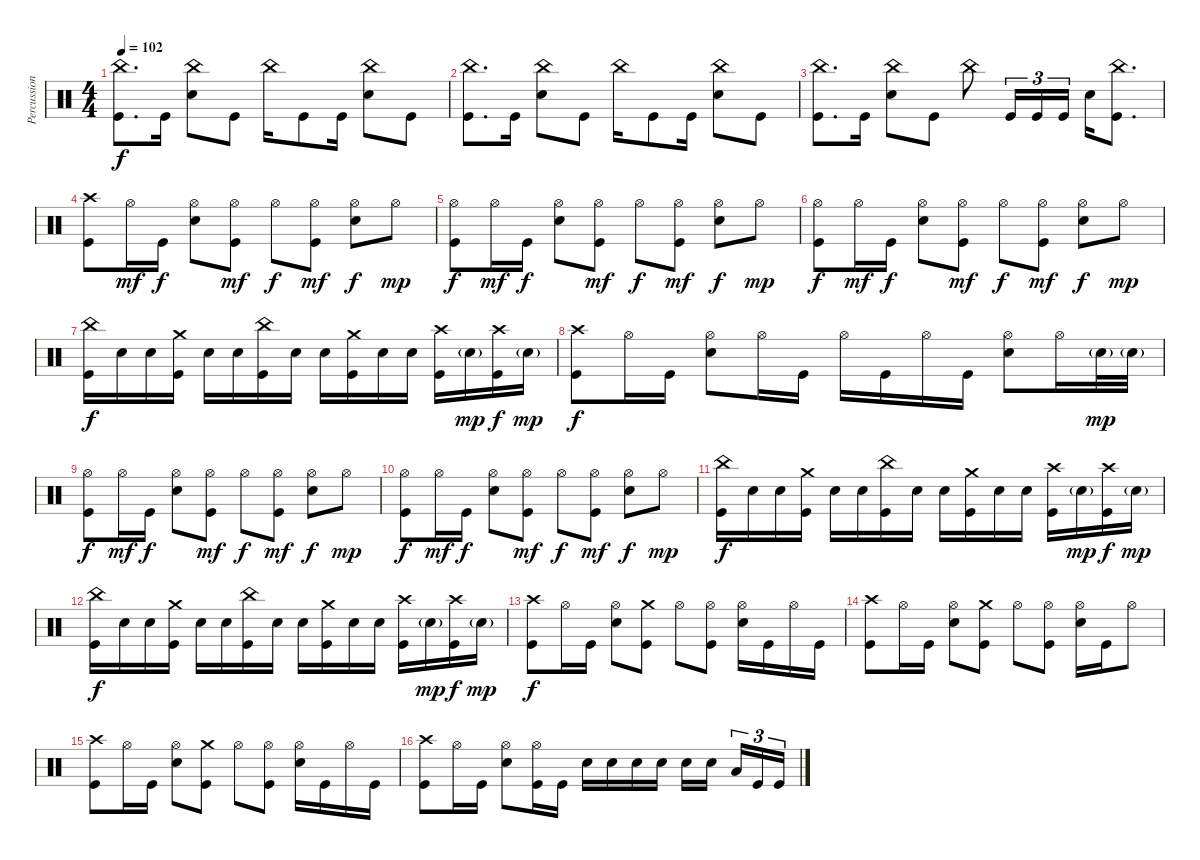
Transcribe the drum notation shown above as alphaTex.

\track ("Percussion" "Percussion") {instrument percussion}
\staff {score}
\articulation defaults
\ts (4 4)
\tempo 102
\clef neutral
\ks c
("China (hit)" "Kick (hit)").8{d dy f} "Kick (hit)".16 ("China (hit)" "Electric Snare (hit)").8 "Kick (hit)".8 "China (hit)".16 "Kick (hit)".8 "Kick (hit)".16 ("China (hit)" "Electric Snare (hit)").8 "Kick (hit)".8 |
("China (hit)" "Kick (hit)").8{d} "Kick (hit)".16 ("China (hit)" "Electric Snare (hit)").8 "Kick (hit)".8 "China (hit)".16 "Kick (hit)".8 "Kick (hit)".16 ("China (hit)" "Electric Snare (hit)").8 "Kick (hit)".8 |
("China (hit)" "Kick (hit)").8{d} "Kick (hit)".16 ("China (hit)" "Electric Snare (hit)").8 "Kick (hit)".8 "China (hit)".8 "Kick (hit)".16{tu (3 2)} "Kick (hit)".16{tu (3 2)} "Kick (hit)".16{tu (3 2)} "Electric Snare (hit)".16 ("China (hit)" "Kick (hit)").8{d} |
("Crash high (hit)" "Kick (hit)").8 "Hi-Hat (open)".16{dy mf} "Kick (hit)".16{dy f} ("Hi-Hat (open)" "Electric Snare (hit)").8 ("Hi-Hat (open)" "Kick (hit)").8{dy mf} "Hi-Hat (open)".8{dy f} ("Hi-Hat (open)" "Kick (hit)").8{dy mf} ("Hi-Hat (open)" "Electric Snare (hit)").8{dy f} "Hi-Hat (open)".8{dy mp} |
("Hi-Hat (open)" "Kick (hit)").8{dy f} "Hi-Hat (open)".16{dy mf} "Kick (hit)".16{dy f} ("Hi-Hat (open)" "Electric Snare (hit)").8 ("Hi-Hat (open)" "Kick (hit)").8{dy mf} "Hi-Hat (open)".8{dy f} ("Hi-Hat (open)" "Kick (hit)").8{dy mf} ("Hi-Hat (open)" "Electric Snare (hit)").8{dy f} "Hi-Hat (open)".8{dy mp} |
("Hi-Hat (open)" "Kick (hit)").8{dy f} "Hi-Hat (open)".16{dy mf} "Kick (hit)".16{dy f} ("Hi-Hat (open)" "Electric Snare (hit)").8 ("Hi-Hat (open)" "Kick (hit)").8{dy mf} "Hi-Hat (open)".8{dy f} ("Hi-Hat (open)" "Kick (hit)").8{dy mf} ("Hi-Hat (open)" "Electric Snare (hit)").8{dy f} "Hi-Hat (open)".8{dy mp} |
("China (hit)" "Kick (hit)").16{dy f} "Electric Snare (hit)".16 "Electric Snare (hit)".16 ("Crash medium (hit)" "Kick (hit)").16 "Electric Snare (hit)".16 "Electric Snare (hit)".16 ("China (hit)" "Kick (hit)").16 "Electric Snare (hit)".16 "Electric Snare (hit)".16 ("Crash medium (hit)" "Kick (hit)").16 "Electric Snare (hit)".16 "Electric Snare (hit)".16 ("Crash high (hit)" "Kick (hit)").16 "Electric Snare (hit)"{g}.16{dy mp} ("Crash high (hit)" "Kick (hit)").16{dy f} "Electric Snare (hit)"{g}.16{dy mp} |
("Crash high (hit)" "Kick (hit)").8{dy f} "Hi-Hat (open)".16 "Kick (hit)".16 ("Hi-Hat (open)" "Electric Snare (hit)").8 "Hi-Hat (open)".16 "Kick (hit)".16 "Hi-Hat (open)".16 "Kick (hit)".16 "Hi-Hat (open)".16 "Kick (hit)".16 ("Hi-Hat (open)" "Electric Snare (hit)").8 "Hi-Hat (open)".16 "Electric Snare (hit)"{g}.32{dy mp} "Electric Snare (hit)"{g}.32 |
("Hi-Hat (open)" "Kick (hit)").8{dy f} "Hi-Hat (open)".16{dy mf} "Kick (hit)".16{dy f} ("Hi-Hat (open)" "Electric Snare (hit)").8 ("Hi-Hat (open)" "Kick (hit)").8{dy mf} "Hi-Hat (open)".8{dy f} ("Hi-Hat (open)" "Kick (hit)").8{dy mf} ("Hi-Hat (open)" "Electric Snare (hit)").8{dy f} "Hi-Hat (open)".8{dy mp} |
("Hi-Hat (open)" "Kick (hit)").8{dy f} "Hi-Hat (open)".16{dy mf} "Kick (hit)".16{dy f} ("Hi-Hat (open)" "Electric Snare (hit)").8 ("Hi-Hat (open)" "Kick (hit)").8{dy mf} "Hi-Hat (open)".8{dy f} ("Hi-Hat (open)" "Kick (hit)").8{dy mf} ("Hi-Hat (open)" "Electric Snare (hit)").8{dy f} "Hi-Hat (open)".8{dy mp} |
("China (hit)" "Kick (hit)").16{dy f} "Electric Snare (hit)".16 "Electric Snare (hit)".16 ("Crash medium (hit)" "Kick (hit)").16 "Electric Snare (hit)".16 "Electric Snare (hit)".16 ("China (hit)" "Kick (hit)").16 "Electric Snare (hit)".16 "Electric Snare (hit)".16 ("Crash medium (hit)" "Kick (hit)").16 "Electric Snare (hit)".16 "Electric Snare (hit)".16 ("Crash high (hit)" "Kick (hit)").16 "Electric Snare (hit)"{g}.16{dy mp} ("Crash high (hit)" "Kick (hit)").16{dy f} "Electric Snare (hit)"{g}.16{dy mp} |
("China (hit)" "Kick (hit)").16{dy f} "Electric Snare (hit)".16 "Electric Snare (hit)".16 ("Crash medium (hit)" "Kick (hit)").16 "Electric Snare (hit)".16 "Electric Snare (hit)".16 ("China (hit)" "Kick (hit)").16 "Electric Snare (hit)".16 "Electric Snare (hit)".16 ("Crash medium (hit)" "Kick (hit)").16 "Electric Snare (hit)".16 "Electric Snare (hit)".16 ("Crash high (hit)" "Kick (hit)").16 "Electric Snare (hit)"{g}.16{dy mp} ("Crash high (hit)" "Kick (hit)").16{dy f} "Electric Snare (hit)"{g}.16{dy mp} |
("Crash high (hit)" "Kick (hit)").8{dy f} "Hi-Hat (open)".16 "Kick (hit)".16 ("Hi-Hat (open)" "Electric Snare (hit)").8 ("Crash medium (hit)" "Kick (hit)").8 "Hi-Hat (open)".8 ("Hi-Hat (open)" "Kick (hit)").8 ("Hi-Hat (open)" "Electric Snare (hit)").16 "Kick (hit)".16 "Hi-Hat (open)".16 "Kick (hit)".16 |
("Crash high (hit)" "Kick (hit)").8 "Hi-Hat (open)".16 "Kick (hit)".16 ("Hi-Hat (open)" "Electric Snare (hit)").8 ("Crash medium (hit)" "Kick (hit)").8 "Hi-Hat (open)".8 ("Hi-Hat (open)" "Kick (hit)").8 ("Hi-Hat (open)" "Electric Snare (hit)").16 "Kick (hit)".16 "Hi-Hat (open)".8 |
("Crash high (hit)" "Kick (hit)").8 "Hi-Hat (open)".16 "Kick (hit)".16 ("Hi-Hat (open)" "Electric Snare (hit)").8 ("Crash medium (hit)" "Kick (hit)").8 "Hi-Hat (open)".8 ("Hi-Hat (open)" "Kick (hit)").8 ("Hi-Hat (open)" "Electric Snare (hit)").16 "Kick (hit)".16 "Hi-Hat (open)".16 "Kick (hit)".16 |
("Crash high (hit)" "Kick (hit)").8 "Hi-Hat (open)".16 "Kick (hit)".16 ("Hi-Hat (open)" "Electric Snare (hit)").8 ("Hi-Hat (open)" "Kick (hit)").16 "Kick (hit)".16 "Electric Snare (hit)".16 "Electric Snare (hit)".16 "Electric Snare (hit)".16 "Electric Snare (hit)".16 "Electric Snare (hit)".16 "Electric Snare (hit)".16{beam splitsecondary} "Low Floor Tom (hit)".16{tu (3 2)} "Kick (hit)".16{tu (3 2)} "Kick (hit)".16{tu (3 2)}
